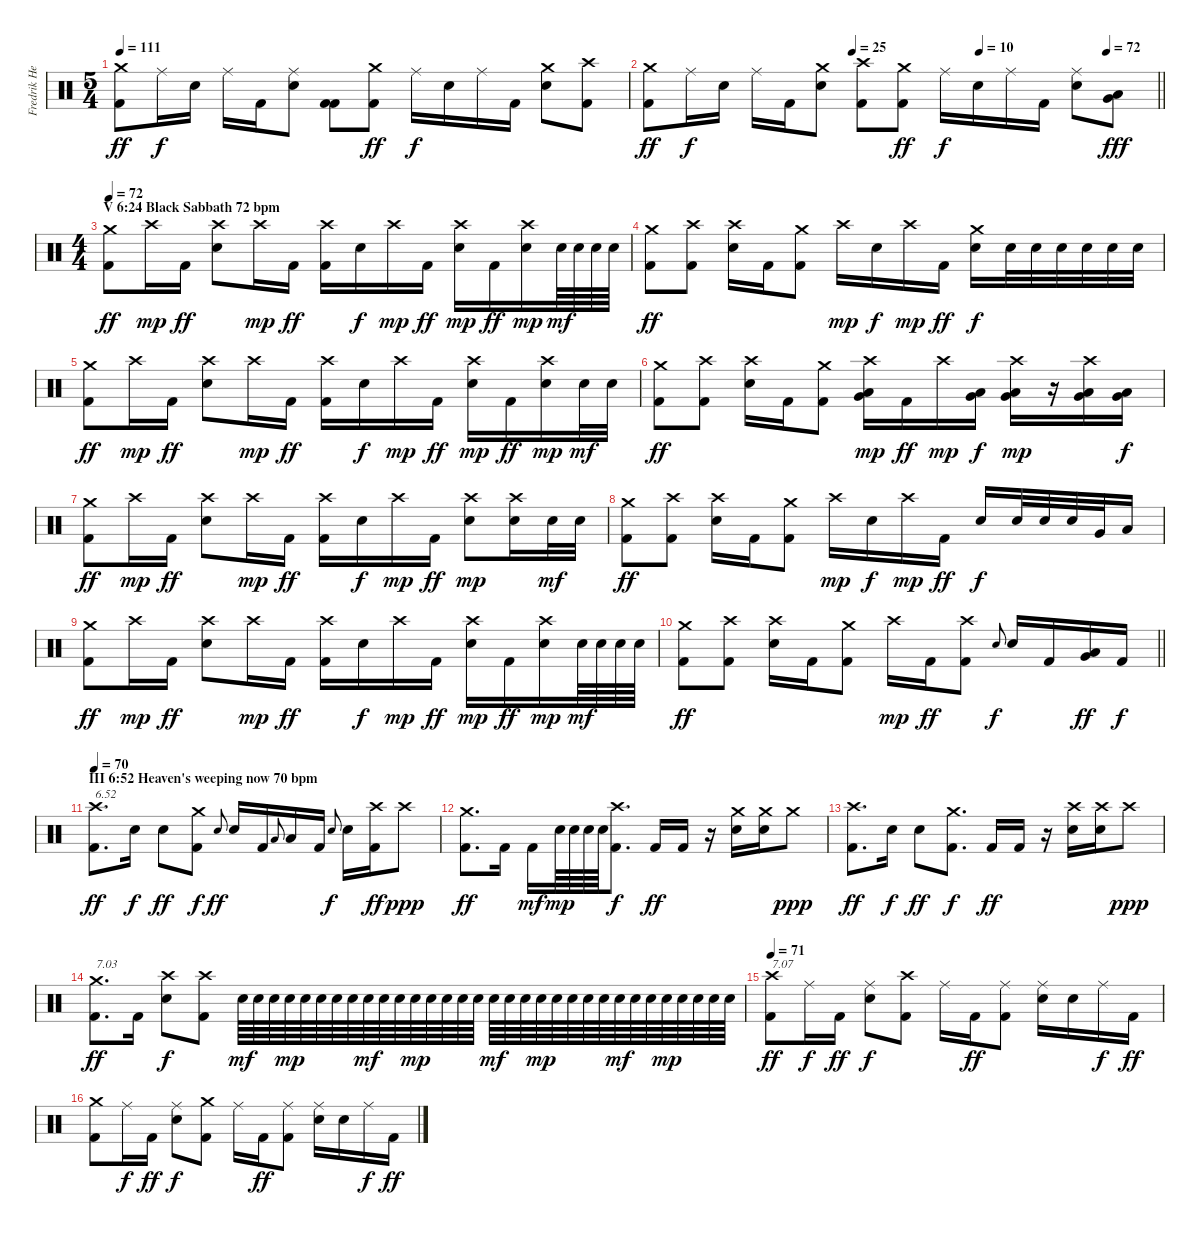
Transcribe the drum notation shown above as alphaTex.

\track ("Fredrik Hellerström (Drums)" "Fredrik He") {instrument percussion}
\staff
\articulation defaults
\ts (5 4)
\tempo 111
\clef neutral
\ks c
("Crash medium (hit)" "Kick (hit) 2").8{dy ff} "Ride (middle)".16{dy f} "Electric Snare (hit)".16 "Ride (middle)".16 "Kick (hit) 2".16 ("Ride (middle)" "Electric Snare (hit)").8 ("Kick (hit) 2" "Kick (hit) 2").8 ("Crash medium (hit)" "Kick (hit) 2").8{dy ff} "Ride (middle)".16{dy f} "Electric Snare (hit)".16 "Ride (middle)".16 "Kick (hit) 2".16 ("Crash medium (hit)" "Electric Snare (hit)").8 ("Crash high (hit)" "Kick (hit) 2").8 |
\tempo (25 0.4)
\tempo (10 0.65)
\tempo (72 0.9)
\barLineRight lightlight
("Crash medium (hit)" "Kick (hit) 2").8{dy ff} "Ride (middle)".16{dy f} "Electric Snare (hit)".16 "Ride (middle)".16 "Kick (hit) 2".16 ("Crash medium (hit)" "Electric Snare (hit)").8 ("Crash high (hit)" "Kick (hit) 2").8 ("Crash medium (hit)" "Kick (hit) 2").8{dy ff} "Ride (middle)".16{dy f} "Electric Snare (hit)".16 "Ride (middle)".16 "Kick (hit) 2".16 ("Ride (middle)" "Electric Snare (hit)").8 ("Very Low Tom (hit)" "Low Floor Tom (hit)").8{dy fff} |
\ts (4 4)
\section ("" "V 6:24 Black Sabbath 72 bpm")
\tempo 72
("Crash medium (hit)" "Kick (hit) 2").8{dy ff} "Crash high (hit)".16{dy mp} "Kick (hit) 2".16{dy ff} ("Crash high (hit)" "Electric Snare (hit)").8 "Crash high (hit)".16{dy mp} "Kick (hit) 2".16{dy ff} ("Crash high (hit)" "Kick (hit) 2").16 "Electric Snare (hit)".16{dy f} "Crash high (hit)".16{dy mp} "Kick (hit) 2".16{dy ff} ("Crash high (hit)" "Electric Snare (hit)").16{dy mp} "Kick (hit) 2".16{dy ff} ("Crash high (hit)" "Electric Snare (hit)").16{dy mp} "Electric Snare (hit)".64{dy mf} "Electric Snare (hit)".64 "Electric Snare (hit)".64 "Electric Snare (hit)".64 |
("Crash medium (hit)" "Kick (hit) 2").8{dy ff} ("Crash high (hit)" "Kick (hit) 2").8 ("Crash high (hit)" "Electric Snare (hit)").16 "Kick (hit) 2".16 ("Crash medium (hit)" "Kick (hit) 2").8 "Crash high (hit)".16{dy mp} "Electric Snare (hit)".16{dy f} "Crash high (hit)".16{dy mp} "Kick (hit) 2".16{dy ff} ("Crash medium (hit)" "Electric Snare (hit)").16{dy f} "Electric Snare (hit)".32 "Electric Snare (hit)".32 "Electric Snare (hit)".32 "Electric Snare (hit)".32 "Electric Snare (hit)".32 "Electric Snare (hit)".32 |
("Crash medium (hit)" "Kick (hit) 2").8{dy ff} "Crash high (hit)".16{dy mp} "Kick (hit) 2".16{dy ff} ("Crash high (hit)" "Electric Snare (hit)").8 "Crash high (hit)".16{dy mp} "Kick (hit) 2".16{dy ff} ("Crash high (hit)" "Kick (hit) 2").16 "Electric Snare (hit)".16{dy f} "Crash high (hit)".16{dy mp} "Kick (hit) 2".16{dy ff} ("Crash high (hit)" "Electric Snare (hit)").16{dy mp} "Kick (hit) 2".16{dy ff} ("Crash high (hit)" "Electric Snare (hit)").16{dy mp} "Electric Snare (hit)".32{dy mf} "Electric Snare (hit)".32 |
("Crash medium (hit)" "Kick (hit) 2").8{dy ff} ("Crash high (hit)" "Kick (hit) 2").8 ("Crash high (hit)" "Electric Snare (hit)").16 "Kick (hit) 2".16 ("Crash medium (hit)" "Kick (hit) 2").8 ("Crash high (hit)" "Very Low Tom (hit)" "Low Floor Tom (hit)").16{dy mp} "Kick (hit) 2".16{dy ff} "Crash high (hit)".16{dy mp} ("Very Low Tom (hit)" "Low Floor Tom (hit)").16{dy f} ("Crash high (hit)" "Low Tom (hit)" "Very Low Tom (hit)").16{dy mp} r.16 ("Crash high (hit)" "Low Tom (hit)" "Very Low Tom (hit)").16 ("Very Low Tom (hit)" "Low Floor Tom (hit)").16{dy f} |
("Crash medium (hit)" "Kick (hit) 2").8{dy ff} "Crash high (hit)".16{dy mp} "Kick (hit) 2".16{dy ff} ("Crash high (hit)" "Electric Snare (hit)").8 "Crash high (hit)".16{dy mp} "Kick (hit) 2".16{dy ff} ("Crash high (hit)" "Kick (hit) 2").16 "Electric Snare (hit)".16{dy f} "Crash high (hit)".16{dy mp} "Kick (hit) 2".16{dy ff} ("Crash high (hit)" "Electric Snare (hit)").8{dy mp} ("Crash high (hit)" "Electric Snare (hit)").16 "Electric Snare (hit)".32{dy mf} "Electric Snare (hit)".32 |
("Crash medium (hit)" "Kick (hit) 2").8{dy ff} ("Crash high (hit)" "Kick (hit) 2").8 ("Crash high (hit)" "Electric Snare (hit)").16 "Kick (hit) 2".16 ("Crash medium (hit)" "Kick (hit) 2").8 "Crash high (hit)".16{dy mp} "Electric Snare (hit)".16{dy f} "Crash high (hit)".16{dy mp} "Kick (hit) 2".16{dy ff} "Electric Snare (hit)".16{dy f} "Electric Snare (hit)".32 "Electric Snare (hit)".32 "Electric Snare (hit)".32 "Very Low Tom (hit)".32 "Low Tom (hit)".16 |
("Crash medium (hit)" "Kick (hit) 2").8{dy ff} "Crash high (hit)".16{dy mp} "Kick (hit) 2".16{dy ff} ("Crash high (hit)" "Electric Snare (hit)").8 "Crash high (hit)".16{dy mp} "Kick (hit) 2".16{dy ff} ("Crash high (hit)" "Kick (hit) 2").16 "Electric Snare (hit)".16{dy f} "Crash high (hit)".16{dy mp} "Kick (hit) 2".16{dy ff} ("Crash high (hit)" "Electric Snare (hit)").16{dy mp} "Kick (hit) 2".16{dy ff} ("Crash high (hit)" "Electric Snare (hit)").16{dy mp} "Electric Snare (hit)".64{dy mf} "Electric Snare (hit)".64 "Electric Snare (hit)".64 "Electric Snare (hit)".64 |
\barLineRight lightlight
("Crash medium (hit)" "Kick (hit) 2").8{dy ff} ("Crash high (hit)" "Kick (hit) 2").8 ("Crash high (hit)" "Electric Snare (hit)").16 "Kick (hit) 2".16 ("Crash medium (hit)" "Kick (hit) 2").8 "Crash high (hit)".16{dy mp} "Kick (hit) 2".16{dy ff} ("Crash high (hit)" "Kick (hit) 2").8 "Electric Snare (hit)".8{gr onbeat dy f} "Electric Snare (hit)".16 "Kick (hit) 2".16 ("Low Tom (hit)" "Very Low Tom (hit)").16{dy ff} "Kick (hit) 2".16{dy f} |
\section ("" "III 6:52 Heaven's weeping now 70 bpm")
\tempo 70
("Crash high (hit)" "Kick (hit) 2").8{d txt "6.52" dy ff} "Electric Snare (hit)".16{dy f} "Electric Snare (hit)".8{dy ff} ("Crash medium (hit)" "Kick (hit) 2").8{dy f} "Electric Snare (hit)".8{gr onbeat dy ff} "Electric Snare (hit)".16 "Kick (hit) 2".16 "Low Tom (hit)".8{gr onbeat} "Low Tom (hit)".16 "Kick (hit) 2".16 "Electric Snare (hit)".8{gr onbeat dy f} "Electric Snare (hit)".16 ("Crash high (hit)" "Kick (hit) 2").16{dy ff} "Crash high (hit)".8{dy ppp} |
("Crash medium (hit)" "Kick (hit) 2").8{d dy ff} "Kick (hit) 2".16 "Kick (hit) 2".16{dy mf} "Electric Snare (hit)".64{dy mp} "Electric Snare (hit)".64 "Electric Snare (hit)".64 "Electric Snare (hit)".64 ("Crash high (hit)" "Kick (hit) 2").8{d dy f} "Kick (hit) 2".16{dy ff} "Kick (hit) 2".16 r.16 ("Crash medium (hit)" "Electric Snare (hit)").16 ("Crash medium (hit)" "Electric Snare (hit)").16 "Crash medium (hit)".8{dy ppp} |
("Crash high (hit)" "Kick (hit) 2").8{d dy ff} "Electric Snare (hit)".16{dy f} "Electric Snare (hit)".8{dy ff} ("Crash medium (hit)" "Kick (hit) 2").8{d dy f} "Kick (hit) 2".16{dy ff} "Kick (hit) 2".16 r.16 ("Crash high (hit)" "Electric Snare (hit)").16 ("Crash high (hit)" "Electric Snare (hit)").16 "Crash high (hit)".8{dy ppp} |
("Crash medium (hit)" "Kick (hit) 2").8{d txt "7.03" dy ff} "Kick (hit) 2".16 ("Crash high (hit)" "Electric Snare (hit)").8{dy f} ("Crash high (hit)" "Kick (hit) 2").8 "Electric Snare (hit)".64{dy mf} "Electric Snare (hit)".64 "Electric Snare (hit)".64 "Electric Snare (hit)".64{dy mp} "Electric Snare (hit)".64 "Electric Snare (hit)".64 "Electric Snare (hit)".64 "Electric Snare (hit)".64 "Electric Snare (hit)".64{dy mf} "Electric Snare (hit)".64 "Electric Snare (hit)".64 "Electric Snare (hit)".64{dy mp} "Electric Snare (hit)".64 "Electric Snare (hit)".64 "Electric Snare (hit)".64 "Electric Snare (hit)".64 "Electric Snare (hit)".64{dy mf} "Electric Snare (hit)".64 "Electric Snare (hit)".64 "Electric Snare (hit)".64{dy mp} "Electric Snare (hit)".64 "Electric Snare (hit)".64 "Electric Snare (hit)".64 "Electric Snare (hit)".64 "Electric Snare (hit)".64{dy mf} "Electric Snare (hit)".64 "Electric Snare (hit)".64 "Electric Snare (hit)".64{dy mp} "Electric Snare (hit)".64 "Electric Snare (hit)".64 "Electric Snare (hit)".64 "Electric Snare (hit)".64 |
\tempo 71
("Crash high (hit)" "Kick (hit) 2").8{txt "7.07" dy ff} "Ride (middle)".16{dy f} "Kick (hit) 2".16{dy ff} ("Ride (middle)" "Electric Snare (hit)").8{dy f} ("Crash high (hit)" "Kick (hit) 2").8 "Ride (middle)".16 "Kick (hit) 2".16{dy ff} ("Ride (middle)" "Kick (hit) 2").8 ("Ride (middle)" "Electric Snare (hit)").16 "Electric Snare (hit)".16 "Ride (middle)".16{dy f} "Kick (hit) 2".16{dy ff} |
("Crash medium (hit)" "Kick (hit) 2").8 "Ride (middle)".16{dy f} "Kick (hit) 2".16{dy ff} ("Ride (middle)" "Electric Snare (hit)").8{dy f} ("Crash medium (hit)" "Kick (hit) 2").8 "Ride (middle)".16 "Kick (hit) 2".16{dy ff} ("Ride (middle)" "Kick (hit) 2").8 ("Ride (middle)" "Electric Snare (hit)").16 "Electric Snare (hit)".16 "Ride (middle)".16{dy f} "Kick (hit) 2".16{dy ff}
